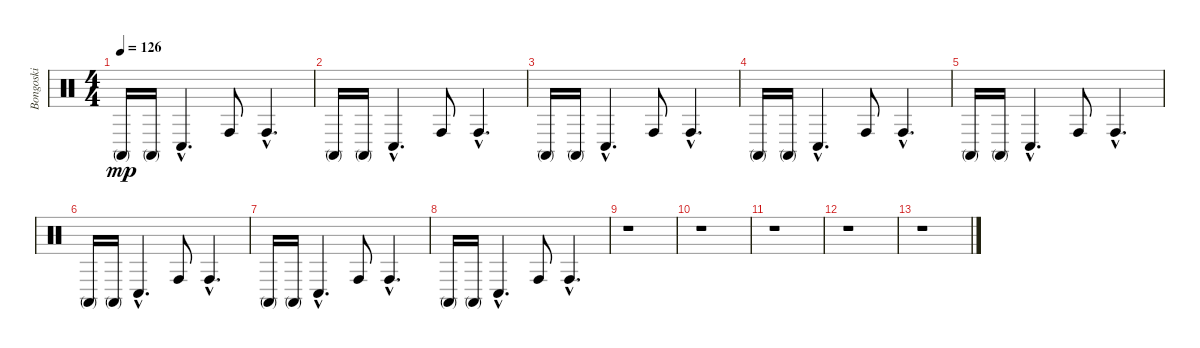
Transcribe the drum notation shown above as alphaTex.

\track ("Bongoski" "Bongoski") {instrument percussion}
\staff {score}
\articulation defaults
\ts (4 4)
\tempo 126
\clef neutral
\ks c "Conga high (mute)".16{dy mp} "Conga high (mute)".16 "Conga low (hit)"{hac}.4{d} "Conga high (hit)".8 "Conga high (hit)"{hac}.4{d}
|
"Conga high (mute)".16 "Conga high (mute)".16 "Conga low (hit)"{hac}.4{d} "Conga high (hit)".8 "Conga high (hit)"{hac}.4{d} |
"Conga high (mute)".16 "Conga high (mute)".16 "Conga low (hit)"{hac}.4{d} "Conga high (hit)".8 "Conga high (hit)"{hac}.4{d} |
"Conga high (mute)".16 "Conga high (mute)".16 "Conga low (hit)"{hac}.4{d} "Conga high (hit)".8 "Conga high (hit)"{hac}.4{d} |
"Conga high (mute)".16 "Conga high (mute)".16 "Conga low (hit)"{hac}.4{d} "Conga high (hit)".8 "Conga high (hit)"{hac}.4{d} |
"Conga high (mute)".16 "Conga high (mute)".16 "Conga low (hit)"{hac}.4{d} "Conga high (hit)".8 "Conga high (hit)"{hac}.4{d} |
"Conga high (mute)".16 "Conga high (mute)".16 "Conga low (hit)"{hac}.4{d} "Conga high (hit)".8 "Conga high (hit)"{hac}.4{d} |
"Conga high (mute)".16 "Conga high (mute)".16 "Conga low (hit)"{hac}.4{d} "Conga high (hit)".8 "Conga high (hit)"{hac}.4{d} |
r.1 |
r.1 |
r.1 |
r.1 |
r.1
